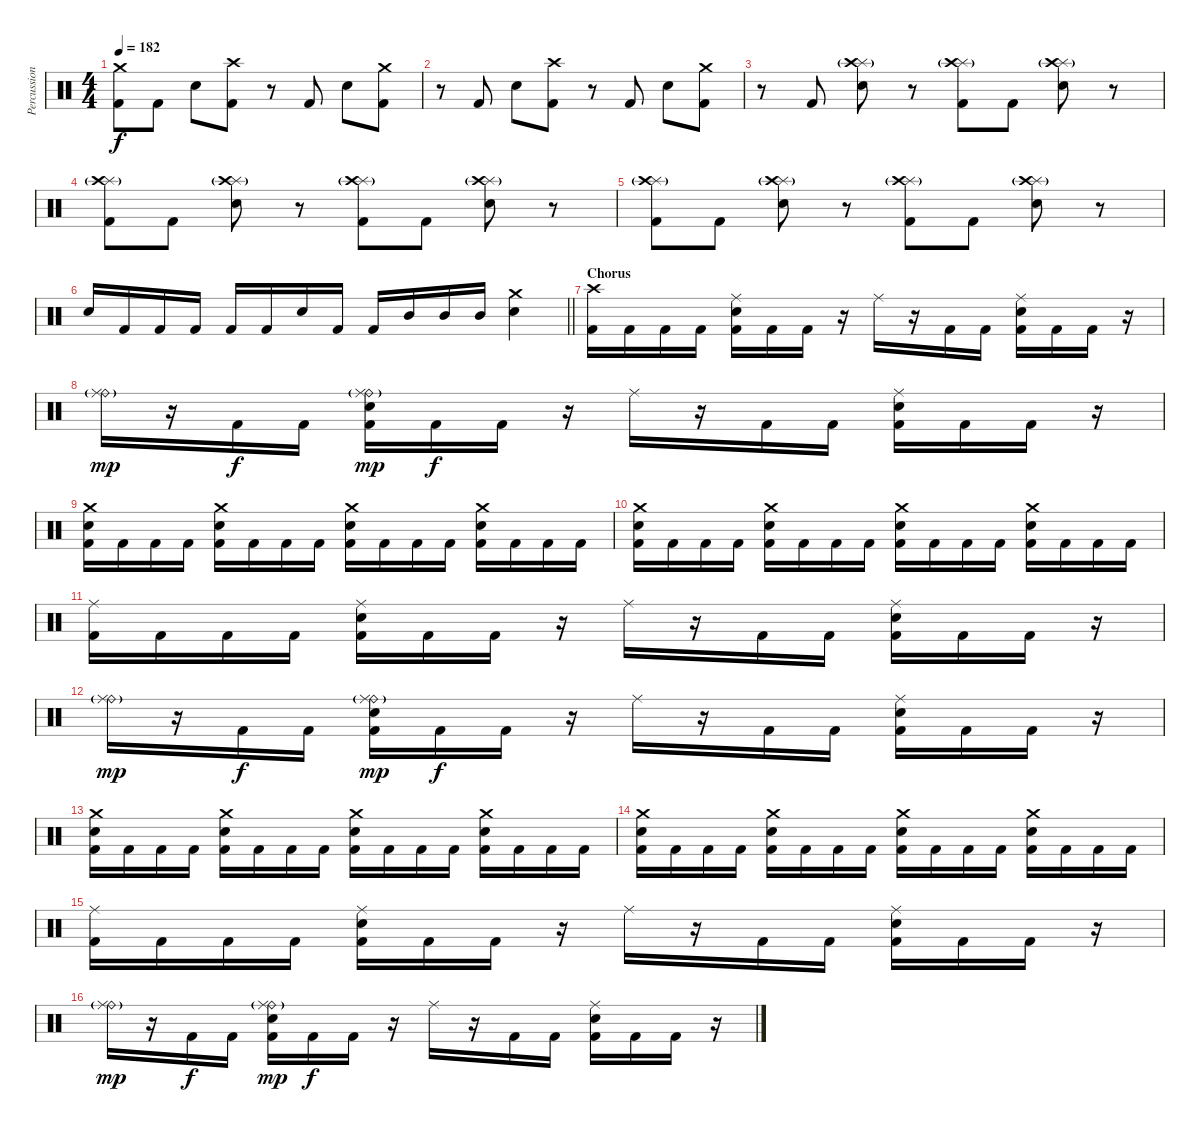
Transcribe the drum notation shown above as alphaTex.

\track ("Percussion" "Percussion") {instrument percussion}
\staff {score}
\articulation defaults
\ts (4 4)
\tempo 182
\clef neutral
\ks c
("Crash medium (hit)" "Kick (hit) 2").8{dy f} "Kick (hit) 2".8 "Electric Snare (hit)".8 ("Crash high (hit)" "Kick (hit) 2").8 r.8 "Kick (hit) 2".8 "Electric Snare (hit)".8 ("Crash medium (hit)" "Kick (hit) 2").8 |
r.8 "Kick (hit) 2".8 "Electric Snare (hit)".8 ("Crash high (hit)" "Kick (hit) 2").8 r.8 "Kick (hit) 2".8 "Electric Snare (hit)".8 ("Crash medium (hit)" "Kick (hit) 2").8 |
r.8 "Kick (hit) 2".8 ("Splash (hit)"{g} "Crash high (hit)" "Electric Snare (hit)").8 r.8 ("Splash (hit)"{g} "Crash high (hit)" "Kick (hit) 2").8 "Kick (hit) 2".8 ("Splash (hit)"{g} "Crash high (hit)" "Electric Snare (hit)").8 r.8 |
("Splash (hit)"{g} "Crash high (hit)" "Kick (hit) 2").8 "Kick (hit) 2".8 ("Splash (hit)"{g} "Crash high (hit)" "Electric Snare (hit)").8 r.8 ("Splash (hit)"{g} "Crash high (hit)" "Kick (hit) 2").8 "Kick (hit) 2".8 ("Splash (hit)"{g} "Crash high (hit)" "Electric Snare (hit)").8 r.8 |
("Splash (hit)"{g} "Crash high (hit)" "Kick (hit) 2").8 "Kick (hit) 2".8 ("Splash (hit)"{g} "Crash high (hit)" "Electric Snare (hit)").8 r.8 ("Splash (hit)"{g} "Crash high (hit)" "Kick (hit) 2").8 "Kick (hit) 2".8 ("Splash (hit)"{g} "Crash high (hit)" "Electric Snare (hit)").8 r.8 |
\barLineRight lightlight "Electric Snare (hit)".16 "Kick (hit) 2".16 "Kick (hit) 2".16 "Kick (hit) 2".16 "Kick (hit) 2".16 "Kick (hit) 2".16 "Electric Snare (hit)".16 "Kick (hit) 2".16 "Kick (hit) 2".16 "Mid Tom (hit)".16 "Mid Tom (hit)".16 "Mid Tom (hit)".16
("Crash medium (hit)" "Electric Snare (hit)").4 |
\section ("" "Chorus")
("Crash high (hit)" "Kick (hit) 2").16 "Kick (hit) 2".16 "Kick (hit) 2".16 "Kick (hit) 2".16 ("Ride (middle)" "Electric Snare (hit)" "Kick (hit) 2").16 "Kick (hit) 2".16 "Kick (hit) 2".16 r.16 "Ride (middle)".16 r.16 "Kick (hit) 2".16 "Kick (hit) 2".16 ("Ride (middle)" "Electric Snare (hit)" "Kick (hit) 2").16 "Kick (hit) 2".16 "Kick (hit) 2".16 r.16 |
("Ride (bell)"{g} "Ride (middle)").16{dy mp} r.16 "Kick (hit) 2".16{dy f} "Kick (hit) 2".16 ("Ride (bell)"{g} "Ride (middle)" "Electric Snare (hit)" "Kick (hit) 2").16{dy mp} "Kick (hit) 2".16{dy f} "Kick (hit) 2".16 r.16 "Ride (middle)".16 r.16 "Kick (hit) 2".16 "Kick (hit) 2".16 ("Ride (middle)" "Electric Snare (hit)" "Kick (hit) 2").16 "Kick (hit) 2".16 "Kick (hit) 2".16 r.16 |
("Crash medium (hit)" "Electric Snare (hit)" "Kick (hit) 2").16 "Kick (hit) 2".16 "Kick (hit) 2".16 "Kick (hit) 2".16 ("Crash medium (hit)" "Electric Snare (hit)" "Kick (hit) 2").16 "Kick (hit) 2".16 "Kick (hit) 2".16 "Kick (hit) 2".16 ("Crash medium (hit)" "Electric Snare (hit)" "Kick (hit) 2").16 "Kick (hit) 2".16 "Kick (hit) 2".16 "Kick (hit) 2".16 ("Crash medium (hit)" "Electric Snare (hit)" "Kick (hit) 2").16 "Kick (hit) 2".16 "Kick (hit) 2".16 "Kick (hit) 2".16 |
("Crash medium (hit)" "Electric Snare (hit)" "Kick (hit) 2").16 "Kick (hit) 2".16 "Kick (hit) 2".16 "Kick (hit) 2".16 ("Crash medium (hit)" "Electric Snare (hit)" "Kick (hit) 2").16 "Kick (hit) 2".16 "Kick (hit) 2".16 "Kick (hit) 2".16 ("Crash medium (hit)" "Electric Snare (hit)" "Kick (hit) 2").16 "Kick (hit) 2".16 "Kick (hit) 2".16 "Kick (hit) 2".16 ("Crash medium (hit)" "Electric Snare (hit)" "Kick (hit) 2").16 "Kick (hit) 2".16 "Kick (hit) 2".16 "Kick (hit) 2".16 |
("Ride (middle)" "Kick (hit) 2").16 "Kick (hit) 2".16 "Kick (hit) 2".16 "Kick (hit) 2".16 ("Ride (middle)" "Electric Snare (hit)" "Kick (hit) 2").16 "Kick (hit) 2".16 "Kick (hit) 2".16 r.16 "Ride (middle)".16 r.16 "Kick (hit) 2".16 "Kick (hit) 2".16 ("Ride (middle)" "Electric Snare (hit)" "Kick (hit) 2").16 "Kick (hit) 2".16 "Kick (hit) 2".16 r.16 |
("Ride (bell)"{g} "Ride (middle)").16{dy mp} r.16 "Kick (hit) 2".16{dy f} "Kick (hit) 2".16 ("Ride (bell)"{g} "Ride (middle)" "Electric Snare (hit)" "Kick (hit) 2").16{dy mp} "Kick (hit) 2".16{dy f} "Kick (hit) 2".16 r.16 "Ride (middle)".16 r.16 "Kick (hit) 2".16 "Kick (hit) 2".16 ("Ride (middle)" "Electric Snare (hit)" "Kick (hit) 2").16 "Kick (hit) 2".16 "Kick (hit) 2".16 r.16 |
("Crash medium (hit)" "Electric Snare (hit)" "Kick (hit) 2").16 "Kick (hit) 2".16 "Kick (hit) 2".16 "Kick (hit) 2".16 ("Crash medium (hit)" "Electric Snare (hit)" "Kick (hit) 2").16 "Kick (hit) 2".16 "Kick (hit) 2".16 "Kick (hit) 2".16 ("Crash medium (hit)" "Electric Snare (hit)" "Kick (hit) 2").16 "Kick (hit) 2".16 "Kick (hit) 2".16 "Kick (hit) 2".16 ("Crash medium (hit)" "Electric Snare (hit)" "Kick (hit) 2").16 "Kick (hit) 2".16 "Kick (hit) 2".16 "Kick (hit) 2".16 |
("Crash medium (hit)" "Electric Snare (hit)" "Kick (hit) 2").16 "Kick (hit) 2".16 "Kick (hit) 2".16 "Kick (hit) 2".16 ("Crash medium (hit)" "Electric Snare (hit)" "Kick (hit) 2").16 "Kick (hit) 2".16 "Kick (hit) 2".16 "Kick (hit) 2".16 ("Crash medium (hit)" "Electric Snare (hit)" "Kick (hit) 2").16 "Kick (hit) 2".16 "Kick (hit) 2".16 "Kick (hit) 2".16 ("Crash medium (hit)" "Electric Snare (hit)" "Kick (hit) 2").16 "Kick (hit) 2".16 "Kick (hit) 2".16 "Kick (hit) 2".16 |
("Ride (middle)" "Kick (hit) 2").16 "Kick (hit) 2".16 "Kick (hit) 2".16 "Kick (hit) 2".16 ("Ride (middle)" "Electric Snare (hit)" "Kick (hit) 2").16 "Kick (hit) 2".16 "Kick (hit) 2".16 r.16 "Ride (middle)".16 r.16 "Kick (hit) 2".16 "Kick (hit) 2".16 ("Ride (middle)" "Electric Snare (hit)" "Kick (hit) 2").16 "Kick (hit) 2".16 "Kick (hit) 2".16 r.16 |
("Ride (bell)"{g} "Ride (middle)").16{dy mp} r.16 "Kick (hit) 2".16{dy f} "Kick (hit) 2".16 ("Ride (bell)"{g} "Ride (middle)" "Electric Snare (hit)" "Kick (hit) 2").16{dy mp} "Kick (hit) 2".16{dy f} "Kick (hit) 2".16 r.16 "Ride (middle)".16 r.16 "Kick (hit) 2".16 "Kick (hit) 2".16 ("Ride (middle)" "Electric Snare (hit)" "Kick (hit) 2").16 "Kick (hit) 2".16 "Kick (hit) 2".16 r.16
